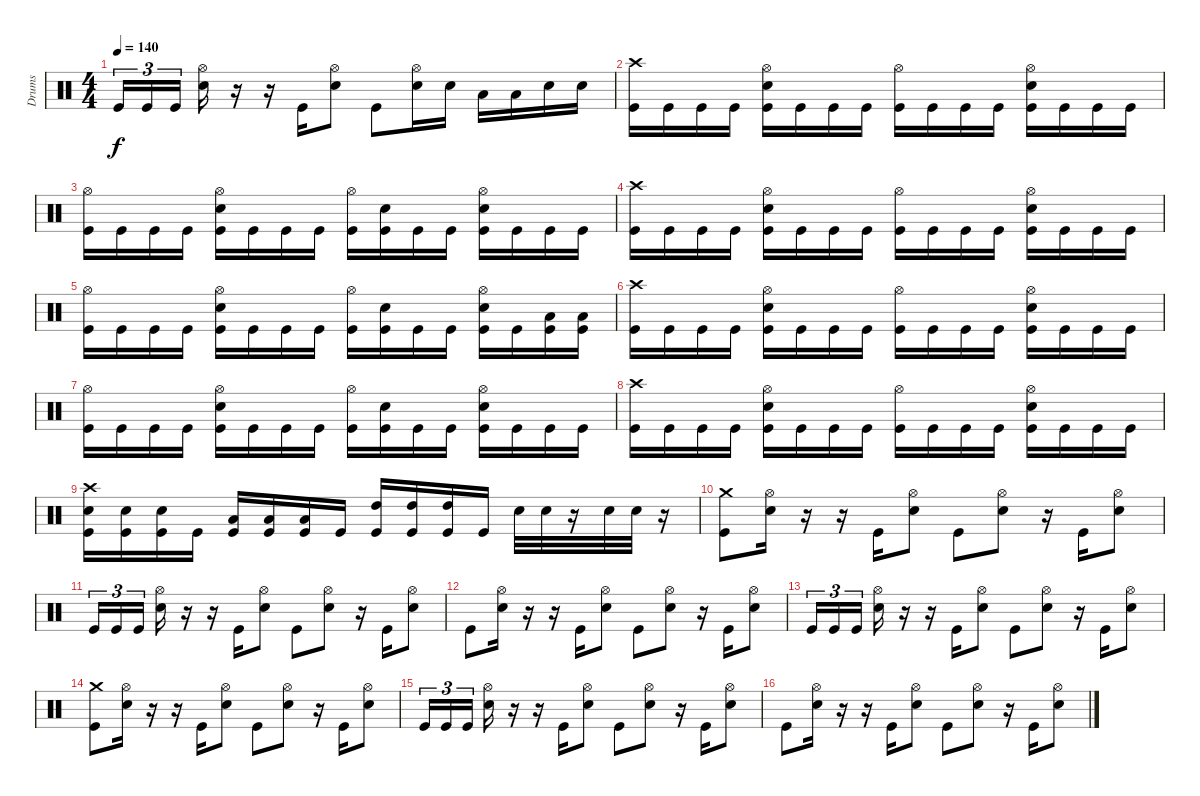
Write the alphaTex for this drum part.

\track ("Drums" "Drums") {instrument percussion}
\staff {score}
\articulation defaults
\ts (4 4)
\tempo 140
\clef neutral
\ks c "Kick (hit)".16{tu (3 2) dy f} "Kick (hit)".16{tu (3 2)} "Kick (hit)".16{tu (3 2)}
("Snare (hit) 2" "Hi-Hat (open)").16 r.16 r.16 "Kick (hit)".16 ("Snare (hit) 2" "Hi-Hat (open)").8 "Kick (hit)".8 ("Snare (hit) 2" "Hi-Hat (open)").16 "Snare (hit) 2".16 "Low Tom (hit)".16 "Low Tom (hit)".16 "Snare (hit) 2".16 "Snare (hit) 2".16 |
("Kick (hit)" "Crash high (hit)").16 "Kick (hit)".16 "Kick (hit)".16 "Kick (hit)".16 ("Kick (hit)" "Snare (hit) 2" "Hi-Hat (open)").16 "Kick (hit)".16 "Kick (hit)".16 "Kick (hit)".16 ("Kick (hit)" "Hi-Hat (open)").16 "Kick (hit)".16 "Kick (hit)".16 "Kick (hit)".16 ("Kick (hit)" "Snare (hit) 2" "Hi-Hat (open)").16 "Kick (hit)".16 "Kick (hit)".16 "Kick (hit)".16 |
("Kick (hit)" "Hi-Hat (open)").16 "Kick (hit)".16 "Kick (hit)".16 "Kick (hit)".16 ("Kick (hit)" "Snare (hit) 2" "Hi-Hat (open)").16 "Kick (hit)".16 "Kick (hit)".16 "Kick (hit)".16 ("Kick (hit)" "Hi-Hat (open)").16 ("Kick (hit)" "Snare (hit) 2").16 "Kick (hit)".16 "Kick (hit)".16 ("Kick (hit)" "Snare (hit) 2" "Hi-Hat (open)").16 "Kick (hit)".16 "Kick (hit)".16 "Kick (hit)".16 |
("Kick (hit)" "Crash high (hit)").16 "Kick (hit)".16 "Kick (hit)".16 "Kick (hit)".16 ("Kick (hit)" "Snare (hit) 2" "Hi-Hat (open)").16 "Kick (hit)".16 "Kick (hit)".16 "Kick (hit)".16 ("Kick (hit)" "Hi-Hat (open)").16 "Kick (hit)".16 "Kick (hit)".16 "Kick (hit)".16 ("Kick (hit)" "Snare (hit) 2" "Hi-Hat (open)").16 "Kick (hit)".16 "Kick (hit)".16 "Kick (hit)".16 |
("Kick (hit)" "Hi-Hat (open)").16 "Kick (hit)".16 "Kick (hit)".16 "Kick (hit)".16 ("Kick (hit)" "Snare (hit) 2" "Hi-Hat (open)").16 "Kick (hit)".16 "Kick (hit)".16 "Kick (hit)".16 ("Kick (hit)" "Hi-Hat (open)").16 ("Kick (hit)" "Snare (hit) 2").16 "Kick (hit)".16 "Kick (hit)".16 ("Kick (hit)" "Snare (hit) 2" "Hi-Hat (open)").16 "Kick (hit)".16 ("Kick (hit)" "Low Tom (hit)").16 ("Kick (hit)" "Low Tom (hit)").16 |
("Kick (hit)" "Crash high (hit)").16 "Kick (hit)".16 "Kick (hit)".16 "Kick (hit)".16 ("Kick (hit)" "Snare (hit) 2" "Hi-Hat (open)").16 "Kick (hit)".16 "Kick (hit)".16 "Kick (hit)".16 ("Kick (hit)" "Hi-Hat (open)").16 "Kick (hit)".16 "Kick (hit)".16 "Kick (hit)".16 ("Kick (hit)" "Snare (hit) 2" "Hi-Hat (open)").16 "Kick (hit)".16 "Kick (hit)".16 "Kick (hit)".16 |
("Kick (hit)" "Hi-Hat (open)").16 "Kick (hit)".16 "Kick (hit)".16 "Kick (hit)".16 ("Kick (hit)" "Snare (hit) 2" "Hi-Hat (open)").16 "Kick (hit)".16 "Kick (hit)".16 "Kick (hit)".16 ("Kick (hit)" "Hi-Hat (open)").16 ("Kick (hit)" "Snare (hit) 2").16 "Kick (hit)".16 "Kick (hit)".16 ("Kick (hit)" "Snare (hit) 2" "Hi-Hat (open)").16 "Kick (hit)".16 "Kick (hit)".16 "Kick (hit)".16 |
("Kick (hit)" "Crash high (hit)").16 "Kick (hit)".16 "Kick (hit)".16 "Kick (hit)".16 ("Kick (hit)" "Snare (hit) 2" "Hi-Hat (open)").16 "Kick (hit)".16 "Kick (hit)".16 "Kick (hit)".16 ("Kick (hit)" "Hi-Hat (open)").16 "Kick (hit)".16 "Kick (hit)".16 "Kick (hit)".16 ("Kick (hit)" "Snare (hit) 2" "Hi-Hat (open)").16 "Kick (hit)".16 "Kick (hit)".16 "Kick (hit)".16 |
("Kick (hit)" "Snare (hit) 2" "Crash high (hit)").16 ("Kick (hit)" "Snare (hit) 2").16 ("Kick (hit)" "Snare (hit) 2").16 "Kick (hit)".16 ("Kick (hit)" "Low Tom (hit)").16 ("Kick (hit)" "Low Tom (hit)").16 ("Kick (hit)" "Low Tom (hit)").16 "Kick (hit)".16 ("Kick (hit)" "High Tom (hit)").16 ("Kick (hit)" "High Tom (hit)").16 ("Kick (hit)" "High Tom (hit)").16 "Kick (hit)".16 "Snare (hit) 2".32 "Snare (hit) 2".32 r.16 "Snare (hit) 2".32 "Snare (hit) 2".32 r.16 |
("Kick (hit)" "Crash medium (hit)").8 ("Snare (hit) 2" "Hi-Hat (open)").16 r.16 r.16 "Kick (hit)".16 ("Snare (hit) 2" "Hi-Hat (open)").8 "Kick (hit)".8 ("Snare (hit) 2" "Hi-Hat (open)").8 r.16 "Kick (hit)".16 ("Snare (hit) 2" "Hi-Hat (open)").8 |
"Kick (hit)".16{tu (3 2)} "Kick (hit)".16{tu (3 2)} "Kick (hit)".16{tu (3 2)} ("Snare (hit) 2" "Hi-Hat (open)").16 r.16 r.16 "Kick (hit)".16 ("Snare (hit) 2" "Hi-Hat (open)").8 "Kick (hit)".8 ("Snare (hit) 2" "Hi-Hat (open)").8 r.16 "Kick (hit)".16 ("Snare (hit) 2" "Hi-Hat (open)").8 |
"Kick (hit)".8 ("Snare (hit) 2" "Hi-Hat (open)").16 r.16 r.16 "Kick (hit)".16 ("Snare (hit) 2" "Hi-Hat (open)").8 "Kick (hit)".8 ("Snare (hit) 2" "Hi-Hat (open)").8 r.16 "Kick (hit)".16 ("Snare (hit) 2" "Hi-Hat (open)").8 |
"Kick (hit)".16{tu (3 2)} "Kick (hit)".16{tu (3 2)} "Kick (hit)".16{tu (3 2)} ("Snare (hit) 2" "Hi-Hat (open)").16 r.16 r.16 "Kick (hit)".16 ("Snare (hit) 2" "Hi-Hat (open)").8 "Kick (hit)".8 ("Snare (hit) 2" "Hi-Hat (open)").8 r.16 "Kick (hit)".16 ("Snare (hit) 2" "Hi-Hat (open)").8 |
("Kick (hit)" "Crash medium (hit)").8 ("Snare (hit) 2" "Hi-Hat (open)").16 r.16 r.16 "Kick (hit)".16 ("Snare (hit) 2" "Hi-Hat (open)").8 "Kick (hit)".8 ("Snare (hit) 2" "Hi-Hat (open)").8 r.16 "Kick (hit)".16 ("Snare (hit) 2" "Hi-Hat (open)").8 |
"Kick (hit)".16{tu (3 2)} "Kick (hit)".16{tu (3 2)} "Kick (hit)".16{tu (3 2)} ("Snare (hit) 2" "Hi-Hat (open)").16 r.16 r.16 "Kick (hit)".16 ("Snare (hit) 2" "Hi-Hat (open)").8 "Kick (hit)".8 ("Snare (hit) 2" "Hi-Hat (open)").8 r.16 "Kick (hit)".16 ("Snare (hit) 2" "Hi-Hat (open)").8 |
"Kick (hit)".8 ("Snare (hit) 2" "Hi-Hat (open)").16 r.16 r.16 "Kick (hit)".16 ("Snare (hit) 2" "Hi-Hat (open)").8 "Kick (hit)".8 ("Snare (hit) 2" "Hi-Hat (open)").8 r.16 "Kick (hit)".16 ("Snare (hit) 2" "Hi-Hat (open)").8
